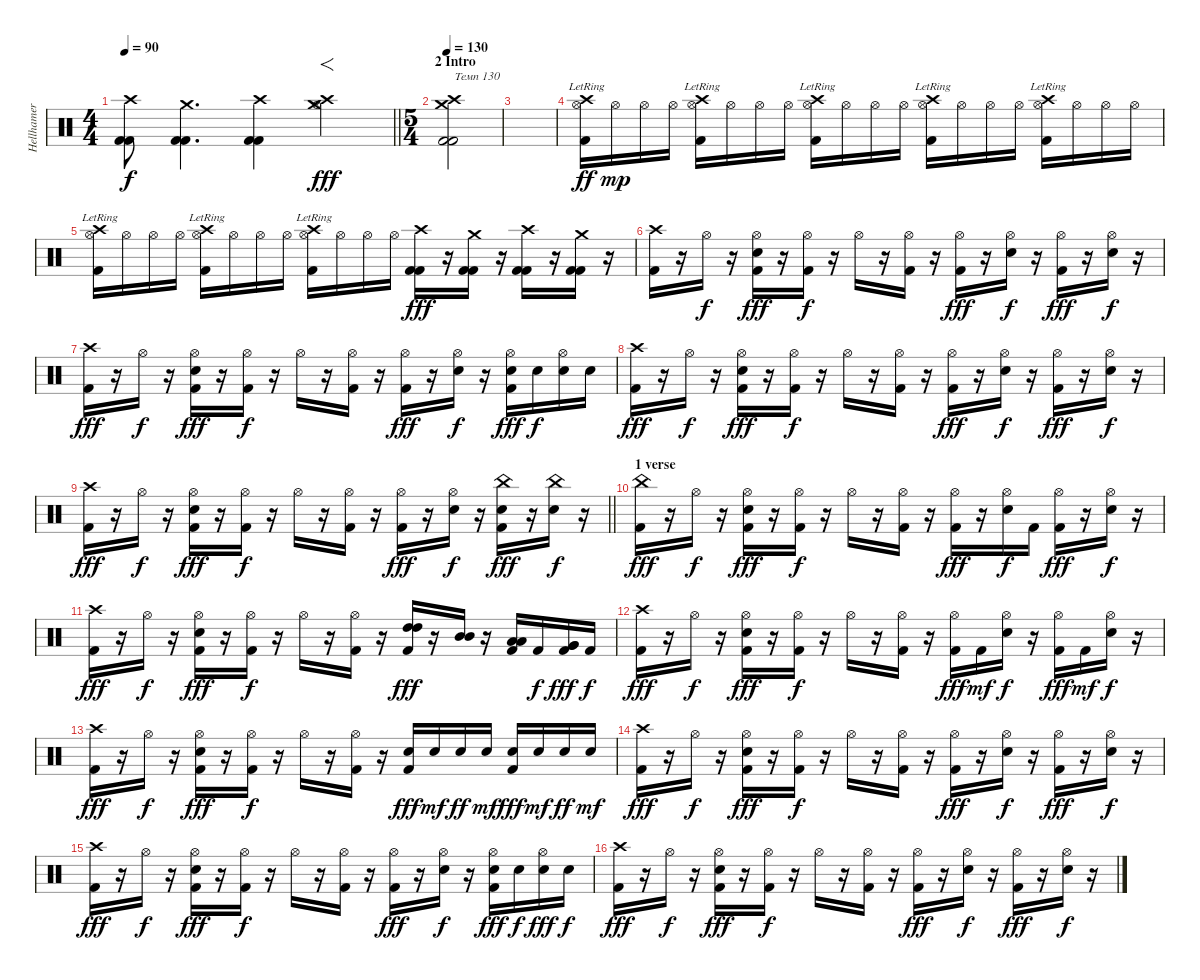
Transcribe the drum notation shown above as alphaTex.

\track ("Hellhamer" "Hellhamer") {instrument percussion}
\staff {score}
\articulation defaults
\ts (4 4)
\tempo 90
\clef neutral
\barLineRight lightlight
\ks c
("Crash high (hit)" "Kick (hit) 2" "Kick (hit) 2").8{dy f} ("Crash medium (hit)" "Kick (hit) 2" "Kick (hit) 2").4{d} ("Crash high (hit)" "Kick (hit) 2" "Kick (hit) 2").4 ("Crash high (hit)" "Crash medium (hit)" "Hi-Hat (open)").4{f dy fff} |
\ts (5 4)
\section ("" "2 Intro")
\tempo 130
("Crash high (hit)" "Crash medium (hit)" "Kick (hit) 2" "Kick (hit) 2").2{txt "Темп 130"} |
|
("Hi-Hat (open)" "Crash high (hit)"{lr} "Kick (hit) 2").16{dy ff} "Hi-Hat (open)".16{dy mp} "Hi-Hat (open)".16 "Hi-Hat (open)".16 ("Hi-Hat (open)" "Crash high (hit)"{lr} "Kick (hit) 2").16 "Hi-Hat (open)".16 "Hi-Hat (open)".16 "Hi-Hat (open)".16 ("Hi-Hat (open)" "Crash high (hit)"{lr} "Kick (hit) 2").16 "Hi-Hat (open)".16 "Hi-Hat (open)".16 "Hi-Hat (open)".16 ("Hi-Hat (open)" "Crash high (hit)"{lr} "Kick (hit) 2").16 "Hi-Hat (open)".16 "Hi-Hat (open)".16 "Hi-Hat (open)".16 ("Hi-Hat (open)" "Crash high (hit)"{lr} "Kick (hit) 2").16 "Hi-Hat (open)".16 "Hi-Hat (open)".16 "Hi-Hat (open)".16 |
("Hi-Hat (open)" "Crash high (hit)"{lr} "Kick (hit) 2").16 "Hi-Hat (open)".16 "Hi-Hat (open)".16 "Hi-Hat (open)".16 ("Hi-Hat (open)" "Crash high (hit)"{lr} "Kick (hit) 2").16 "Hi-Hat (open)".16 "Hi-Hat (open)".16 "Hi-Hat (open)".16 ("Hi-Hat (open)" "Crash high (hit)"{lr} "Kick (hit) 2").16 "Hi-Hat (open)".16 "Hi-Hat (open)".16 "Hi-Hat (open)".16 ("Crash high (hit)" "Kick (hit) 2" "Kick (hit) 2").16{dy fff} r.16 ("Crash medium (hit)" "Kick (hit) 2" "Kick (hit) 2").16 r.16 ("Crash high (hit)" "Kick (hit) 2" "Kick (hit) 2").16 r.16 ("Crash medium (hit)" "Kick (hit) 2" "Kick (hit) 2").16 r.16 |
("Crash high (hit)" "Kick (hit) 2").16 r.16 "Hi-Hat (open)".16{dy f} r.16 ("Hi-Hat (open)" "Electric Snare (hit)" "Kick (hit) 2").16{dy fff} r.16 ("Hi-Hat (open)" "Kick (hit) 2").16{dy f} r.16 "Hi-Hat (open)".16 r.16 ("Hi-Hat (open)" "Kick (hit) 2").16 r.16 ("Hi-Hat (open)" "Kick (hit) 2").16{dy fff} r.16 ("Hi-Hat (open)" "Electric Snare (hit)").16{dy f} r.16 ("Hi-Hat (open)" "Kick (hit) 2").16{dy fff} r.16 ("Hi-Hat (open)" "Electric Snare (hit)").16{dy f} r.16 |
("Crash high (hit)" "Kick (hit) 2").16{dy fff} r.16 "Hi-Hat (open)".16{dy f} r.16 ("Hi-Hat (open)" "Electric Snare (hit)" "Kick (hit) 2").16{dy fff} r.16 ("Hi-Hat (open)" "Kick (hit) 2").16{dy f} r.16 "Hi-Hat (open)".16 r.16 ("Hi-Hat (open)" "Kick (hit) 2").16 r.16 ("Hi-Hat (open)" "Kick (hit) 2").16{dy fff} r.16 ("Hi-Hat (open)" "Electric Snare (hit)").16{dy f} r.16 ("Hi-Hat (open)" "Electric Snare (hit)" "Kick (hit) 2").16{dy fff} "Electric Snare (hit)".16{dy f} ("Hi-Hat (open)" "Electric Snare (hit)").16 "Electric Snare (hit)".16 |
("Crash high (hit)" "Kick (hit) 2").16{dy fff} r.16 "Hi-Hat (open)".16{dy f} r.16 ("Hi-Hat (open)" "Electric Snare (hit)" "Kick (hit) 2").16{dy fff} r.16 ("Hi-Hat (open)" "Kick (hit) 2").16{dy f} r.16 "Hi-Hat (open)".16 r.16 ("Hi-Hat (open)" "Kick (hit) 2").16 r.16 ("Hi-Hat (open)" "Kick (hit) 2").16{dy fff} r.16 ("Hi-Hat (open)" "Electric Snare (hit)").16{dy f} r.16 ("Hi-Hat (open)" "Kick (hit) 2").16{dy fff} r.16 ("Hi-Hat (open)" "Electric Snare (hit)").16{dy f} r.16 |
\barLineRight lightlight
("Crash high (hit)" "Kick (hit) 2").16{dy fff} r.16 "Hi-Hat (open)".16{dy f} r.16 ("Hi-Hat (open)" "Electric Snare (hit)" "Kick (hit) 2").16{dy fff} r.16 ("Hi-Hat (open)" "Kick (hit) 2").16{dy f} r.16 "Hi-Hat (open)".16 r.16 ("Hi-Hat (open)" "Kick (hit) 2").16 r.16 ("Hi-Hat (open)" "Kick (hit) 2").16{dy fff} r.16 ("Hi-Hat (open)" "Electric Snare (hit)").16{dy f} r.16 ("China (hit)" "Electric Snare (hit)" "Kick (hit) 2").16{dy fff} r.16 ("China (hit)" "Electric Snare (hit)").16{dy f} r.16 |
\section ("" "1 verse")
("China (hit)" "Kick (hit) 2").16{dy fff} r.16 "Hi-Hat (open)".16{dy f} r.16 ("Hi-Hat (open)" "Electric Snare (hit)" "Kick (hit) 2").16{dy fff} r.16 ("Hi-Hat (open)" "Kick (hit) 2").16{dy f} r.16 "Hi-Hat (open)".16 r.16 ("Hi-Hat (open)" "Kick (hit) 2").16 r.16 ("Hi-Hat (open)" "Kick (hit) 2").16{dy fff} r.16 ("Hi-Hat (open)" "Electric Snare (hit)").16{dy f} "Kick (hit) 2".16 ("Hi-Hat (open)" "Kick (hit) 2").16{dy fff} r.16 ("Hi-Hat (open)" "Electric Snare (hit)").16{dy f} r.16 |
("Crash high (hit)" "Kick (hit) 2").16{dy fff} r.16 "Hi-Hat (open)".16{dy f} r.16 ("Hi-Hat (open)" "Electric Snare (hit)" "Kick (hit) 2").16{dy fff} r.16 ("Hi-Hat (open)" "Kick (hit) 2").16{dy f} r.16 "Hi-Hat (open)".16 r.16 ("Hi-Hat (open)" "Kick (hit) 2").16 r.16 ("High Tom (hit)" "High Tom (hit)" "Kick (hit) 2").16{dy fff} r.16 ("Mid Tom (hit)" "Mid Tom (hit)").16 r.16 ("Low Tom (hit)" "Low Tom (hit)" "Kick (hit) 2").16 "Kick (hit) 2".16{dy f} ("Very Low Tom (hit)" "Very Low Tom (hit)" "Kick (hit) 2").16{dy fff} "Kick (hit) 2".16{dy f} |
("Crash high (hit)" "Kick (hit) 2").16{dy fff} r.16 "Hi-Hat (open)".16{dy f} r.16 ("Hi-Hat (open)" "Electric Snare (hit)" "Kick (hit) 2").16{dy fff} r.16 ("Hi-Hat (open)" "Kick (hit) 2").16{dy f} r.16 "Hi-Hat (open)".16 r.16 ("Hi-Hat (open)" "Kick (hit) 2").16 r.16 ("Hi-Hat (open)" "Kick (hit) 2").16{dy fff} "Kick (hit) 2".16{dy mf} ("Hi-Hat (open)" "Electric Snare (hit)").16{dy f} r.16 ("Hi-Hat (open)" "Kick (hit) 2").16{dy fff} "Kick (hit) 2".16{dy mf} ("Hi-Hat (open)" "Electric Snare (hit)").16{dy f} r.16 |
("Crash high (hit)" "Kick (hit) 2").16{dy fff} r.16 "Hi-Hat (open)".16{dy f} r.16 ("Hi-Hat (open)" "Electric Snare (hit)" "Kick (hit) 2").16{dy fff} r.16 ("Hi-Hat (open)" "Kick (hit) 2").16{dy f} r.16 "Hi-Hat (open)".16 r.16 ("Hi-Hat (open)" "Kick (hit) 2").16 r.16 ("Electric Snare (hit)" "Kick (hit) 2").16{dy fff} "Electric Snare (hit)".16{dy mf} "Electric Snare (hit)".16{dy ff} "Electric Snare (hit)".16{dy mf} ("Electric Snare (hit)" "Kick (hit) 2").16{dy fff} "Electric Snare (hit)".16{dy mf} "Electric Snare (hit)".16{dy ff} "Electric Snare (hit)".16{dy mf} |
("Crash high (hit)" "Kick (hit) 2").16{dy fff} r.16 "Hi-Hat (open)".16{dy f} r.16 ("Hi-Hat (open)" "Electric Snare (hit)" "Kick (hit) 2").16{dy fff} r.16 ("Hi-Hat (open)" "Kick (hit) 2").16{dy f} r.16 "Hi-Hat (open)".16 r.16 ("Hi-Hat (open)" "Kick (hit) 2").16 r.16 ("Hi-Hat (open)" "Kick (hit) 2").16{dy fff} r.16 ("Hi-Hat (open)" "Electric Snare (hit)").16{dy f} r.16 ("Hi-Hat (open)" "Kick (hit) 2").16{dy fff} r.16 ("Hi-Hat (open)" "Electric Snare (hit)").16{dy f} r.16 |
("Crash high (hit)" "Kick (hit) 2").16{dy fff} r.16 "Hi-Hat (open)".16{dy f} r.16 ("Hi-Hat (open)" "Electric Snare (hit)" "Kick (hit) 2").16{dy fff} r.16 ("Hi-Hat (open)" "Kick (hit) 2").16{dy f} r.16 "Hi-Hat (open)".16 r.16 ("Hi-Hat (open)" "Kick (hit) 2").16 r.16 ("Hi-Hat (open)" "Kick (hit) 2").16{dy fff} r.16 ("Hi-Hat (open)" "Electric Snare (hit)").16{dy f} r.16 ("Hi-Hat (open)" "Electric Snare (hit)" "Kick (hit) 2").16{dy fff} "Electric Snare (hit)".16{dy f} ("Hi-Hat (open)" "Electric Snare (hit)").16{dy fff} "Electric Snare (hit)".16{dy f} |
("Crash high (hit)" "Kick (hit) 2").16{dy fff} r.16 "Hi-Hat (open)".16{dy f} r.16 ("Hi-Hat (open)" "Electric Snare (hit)" "Kick (hit) 2").16{dy fff} r.16 ("Hi-Hat (open)" "Kick (hit) 2").16{dy f} r.16 "Hi-Hat (open)".16 r.16 ("Hi-Hat (open)" "Kick (hit) 2").16 r.16 ("Hi-Hat (open)" "Kick (hit) 2").16{dy fff} r.16 ("Hi-Hat (open)" "Electric Snare (hit)").16{dy f} r.16 ("Hi-Hat (open)" "Kick (hit) 2").16{dy fff} r.16 ("Hi-Hat (open)" "Electric Snare (hit)").16{dy f} r.16
